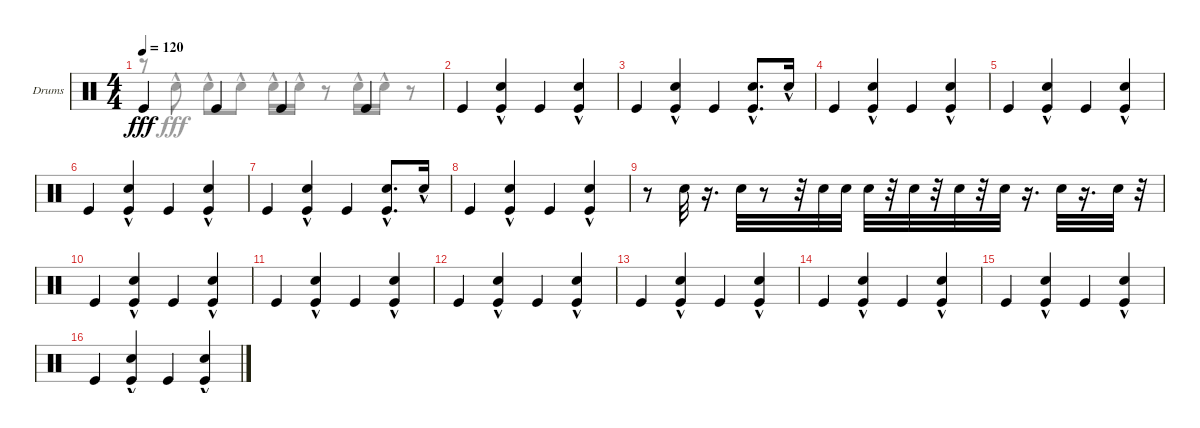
\defaultSystemsLayout 4
\bracketExtendMode nobrackets
\firstSystemTrackNameOrientation horizontal
\otherSystemsTrackNameOrientation horizontal
\track ("Drumkit" "Drums") {instrument percussion}
\staff {score}
\articulation defaults
\voice
\ts (4 4)
\tempo 120
\clef neutral
\ks c "Kick (hit)".4{dy fff} "Kick (hit)".4 "Kick (hit)".4 "Kick (hit)".4
|
"Kick (hit)".4 ("Kick (hit)" "Snare (hit) 2"{hac}).4 "Kick (hit)".4 ("Kick (hit)" "Snare (hit) 2"{hac}).4 |
"Kick (hit)".4 ("Kick (hit)" "Snare (hit) 2"{hac}).4 "Kick (hit)".4 ("Kick (hit)" "Snare (hit) 2"{hac}).8{d} "Snare (hit) 2"{hac}.16 |
"Kick (hit)".4 ("Kick (hit)" "Snare (hit) 2"{hac}).4 "Kick (hit)".4 ("Kick (hit)" "Snare (hit) 2"{hac}).4 |
"Kick (hit)".4 ("Kick (hit)" "Snare (hit) 2"{hac}).4 "Kick (hit)".4 ("Kick (hit)" "Snare (hit) 2"{hac}).4 |
"Kick (hit)".4 ("Kick (hit)" "Snare (hit) 2"{hac}).4 "Kick (hit)".4 ("Kick (hit)" "Snare (hit) 2"{hac}).4 |
"Kick (hit)".4 ("Kick (hit)" "Snare (hit) 2"{hac}).4 "Kick (hit)".4 ("Kick (hit)" "Snare (hit) 2"{hac}).8{d} "Snare (hit) 2"{hac}.16 |
"Kick (hit)".4 ("Kick (hit)" "Snare (hit) 2"{hac}).4 "Kick (hit)".4 ("Kick (hit)" "Snare (hit) 2"{hac}).4 |
r.8 "Snare (hit) 2".32 r.16{d} "Snare (hit) 2".32 r.8 r.32 "Snare (hit) 2".32 "Snare (hit) 2".32 "Snare (hit) 2".32 r.32 "Snare (hit) 2".32 r.32 "Snare (hit) 2".32 r.32 "Snare (hit) 2".32 r.16{d} "Snare (hit) 2".32 r.16{d} "Snare (hit) 2".32 r.32 |
"Kick (hit)".4 ("Kick (hit)" "Snare (hit) 2"{hac}).4 "Kick (hit)".4 ("Kick (hit)" "Snare (hit) 2"{hac}).4 |
"Kick (hit)".4 ("Kick (hit)" "Snare (hit) 2"{hac}).4 "Kick (hit)".4 ("Kick (hit)" "Snare (hit) 2"{hac}).4 |
"Kick (hit)".4 ("Kick (hit)" "Snare (hit) 2"{hac}).4 "Kick (hit)".4 ("Kick (hit)" "Snare (hit) 2"{hac}).4 |
"Kick (hit)".4 ("Kick (hit)" "Snare (hit) 2"{hac}).4 "Kick (hit)".4 ("Kick (hit)" "Snare (hit) 2"{hac}).4 |
"Kick (hit)".4 ("Kick (hit)" "Snare (hit) 2"{hac}).4 "Kick (hit)".4 ("Kick (hit)" "Snare (hit) 2"{hac}).4 |
"Kick (hit)".4 ("Kick (hit)" "Snare (hit) 2"{hac}).4 "Kick (hit)".4 ("Kick (hit)" "Snare (hit) 2"{hac}).4 |
"Kick (hit)".4 ("Kick (hit)" "Snare (hit) 2"{hac}).4 "Kick (hit)".4 ("Kick (hit)" "Snare (hit) 2"{hac}).4
\voice
\clef neutral
\ottava regular
\simile none
\ks c
r.8{dy fff} "Snare (hit) 2"{hac}.8 "Snare (hit) 2"{hac}.8 "Snare (hit) 2"{hac}.8 "Snare (hit) 2"{hac}.16 "Snare (hit) 2"{hac}.16 r.8 "Snare (hit) 2"{hac}.16 "Snare (hit) 2"{hac}.16 r.8 |
|
|
|
|
|
|
|
|
|
|
|
|
|
|
